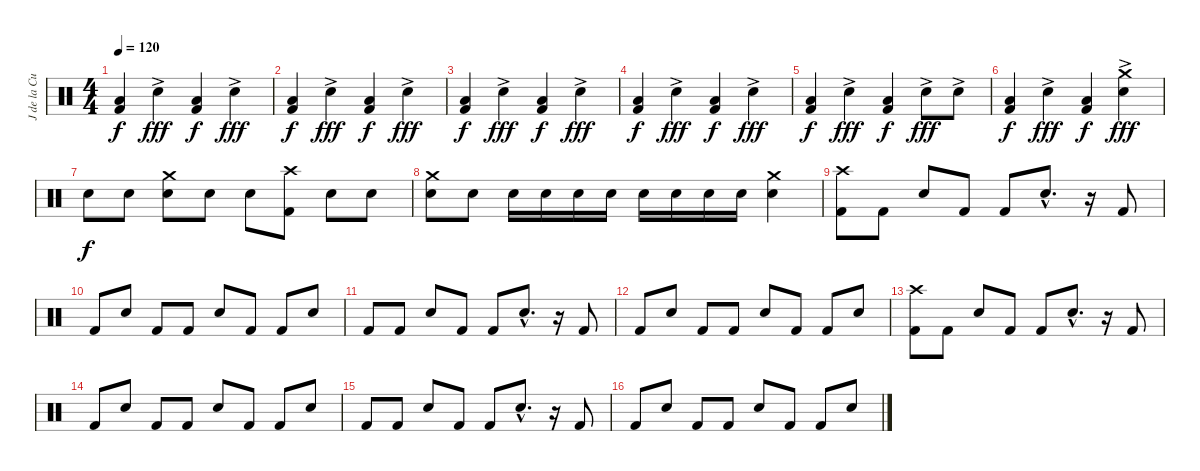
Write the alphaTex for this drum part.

\track ("J de la Cueva" "J de la Cu") {instrument percussion}
\staff {score}
\articulation defaults
\ts (4 4)
\tempo 120
\clef neutral
\ks c
("Low Tom (hit)" "Kick (hit) 2").4{dy f} "Snare (hit) 2"{ac}.4{dy fff} ("Low Tom (hit)" "Kick (hit) 2").4{dy f} "Snare (hit) 2"{ac}.4{dy fff} |
("Low Tom (hit)" "Kick (hit) 2").4{dy f} "Snare (hit) 2"{ac}.4{dy fff} ("Low Tom (hit)" "Kick (hit) 2").4{dy f} "Snare (hit) 2"{ac}.4{dy fff} |
("Low Tom (hit)" "Kick (hit) 2").4{dy f} "Snare (hit) 2"{ac}.4{dy fff} ("Low Tom (hit)" "Kick (hit) 2").4{dy f} "Snare (hit) 2"{ac}.4{dy fff} |
("Low Tom (hit)" "Kick (hit) 2").4{dy f} "Snare (hit) 2"{ac}.4{dy fff} ("Low Tom (hit)" "Kick (hit) 2").4{dy f} "Snare (hit) 2"{ac}.4{dy fff} |
("Low Tom (hit)" "Kick (hit) 2").4{dy f} "Snare (hit) 2"{ac}.4{dy fff} ("Low Tom (hit)" "Kick (hit) 2").4{dy f} "Snare (hit) 2"{ac}.8{dy fff} "Electric Snare (hit)"{ac}.8 |
("Low Tom (hit)" "Kick (hit) 2").4{dy f} "Snare (hit) 2"{ac}.4{dy fff} ("Low Tom (hit)" "Kick (hit) 2").4{dy f} ("Crash medium (hit)" "Snare (hit) 2"{ac}).4{dy fff} |
"Snare (hit) 2".8{dy f} "Snare (hit) 2".8 ("Crash medium (hit)" "Snare (hit) 2").8 "Snare (hit) 2".8 "Snare (hit) 2".8 ("Crash high (hit)" "Kick (hit) 2").8 "Snare (hit) 2".8 "Snare (hit) 2".8 |
("Crash medium (hit)" "Snare (hit) 2").8 "Snare (hit) 2".8 "Snare (hit) 2".16 "Snare (hit) 2".16 "Snare (hit) 2".16 "Snare (hit) 2".16 "Snare (hit) 2".16 "Snare (hit) 2".16 "Electric Snare (hit)".16 "Electric Snare (hit)".16 ("Crash medium (hit)" "Snare (hit) 2").4 |
("Crash high (hit)" "Kick (hit) 2").8 "Kick (hit) 2".8 "Snare (hit) 2".8 "Kick (hit) 2".8 "Kick (hit) 2".8 "Snare (hit) 2"{hac}.8{d} r.16 "Kick (hit) 2".8 |
"Kick (hit) 2".8 "Snare (hit) 2".8 "Kick (hit) 2".8 "Kick (hit) 2".8 "Snare (hit) 2".8 "Kick (hit) 2".8 "Kick (hit) 2".8 "Snare (hit) 2".8 |
"Kick (hit) 2".8 "Kick (hit) 2".8 "Snare (hit) 2".8 "Kick (hit) 2".8 "Kick (hit) 2".8 "Snare (hit) 2"{hac}.8{d} r.16 "Kick (hit) 2".8 |
"Kick (hit) 2".8 "Snare (hit) 2".8 "Kick (hit) 2".8 "Kick (hit) 2".8 "Snare (hit) 2".8 "Kick (hit) 2".8 "Kick (hit) 2".8 "Snare (hit) 2".8 |
("Crash high (hit)" "Kick (hit) 2").8 "Kick (hit) 2".8 "Snare (hit) 2".8 "Kick (hit) 2".8 "Kick (hit) 2".8 "Snare (hit) 2"{hac}.8{d} r.16 "Kick (hit) 2".8 |
"Kick (hit) 2".8 "Snare (hit) 2".8 "Kick (hit) 2".8 "Kick (hit) 2".8 "Snare (hit) 2".8 "Kick (hit) 2".8 "Kick (hit) 2".8 "Snare (hit) 2".8 |
"Kick (hit) 2".8 "Kick (hit) 2".8 "Snare (hit) 2".8 "Kick (hit) 2".8 "Kick (hit) 2".8 "Snare (hit) 2"{hac}.8{d} r.16 "Kick (hit) 2".8 |
"Kick (hit) 2".8 "Snare (hit) 2".8 "Kick (hit) 2".8 "Kick (hit) 2".8 "Snare (hit) 2".8 "Kick (hit) 2".8 "Kick (hit) 2".8 "Snare (hit) 2".8
